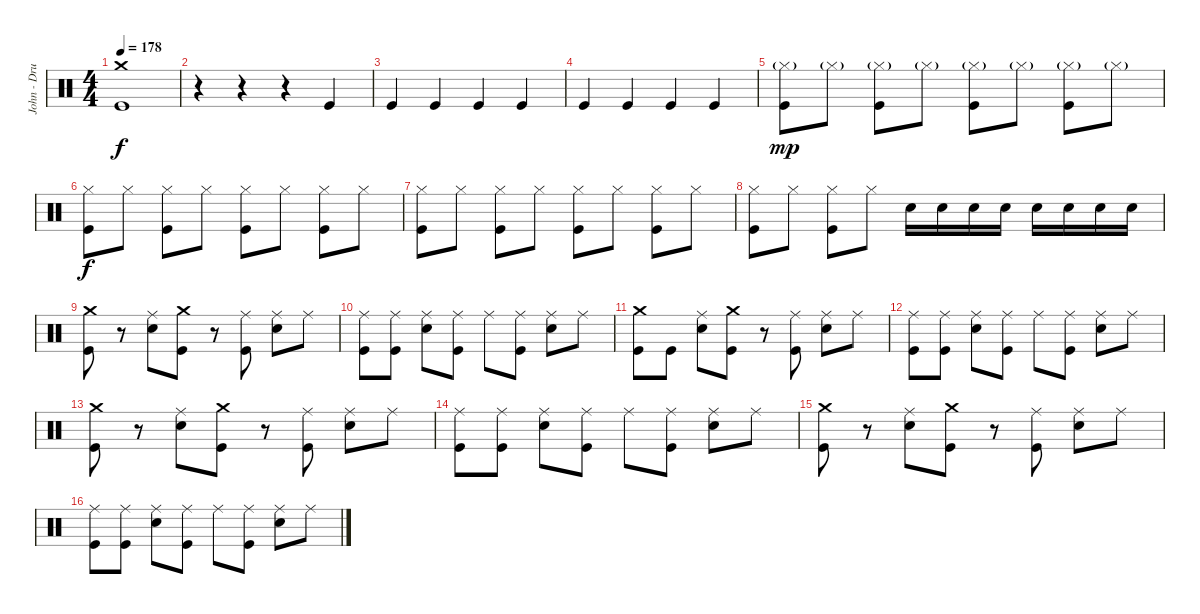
\track ("John - Drums" "John - Dru") {instrument percussion}
\staff {score}
\articulation defaults
\ts (4 4)
\tempo 178
\clef neutral
\ks c
("Crash medium (hit)" "Kick (hit)").1{dy f} |
r.4 r.4 r.4 "Kick (hit)".4 |
"Kick (hit)".4 "Kick (hit)".4 "Kick (hit)".4 "Kick (hit)".4 |
"Kick (hit)".4 "Kick (hit)".4 "Kick (hit)".4 "Kick (hit)".4 |
("Hi-Hat (closed)"{g} "Kick (hit)").8{dy mp} "Hi-Hat (closed)"{g}.8 ("Hi-Hat (closed)"{g} "Kick (hit)").8 "Hi-Hat (closed)"{g}.8 ("Hi-Hat (closed)"{g} "Kick (hit)").8 "Hi-Hat (closed)"{g}.8 ("Hi-Hat (closed)"{g} "Kick (hit)").8 "Hi-Hat (closed)"{g}.8 |
("Hi-Hat (closed)" "Kick (hit)").8{dy f} "Hi-Hat (closed)".8 ("Hi-Hat (closed)" "Kick (hit)").8 "Hi-Hat (closed)".8 ("Hi-Hat (closed)" "Kick (hit)").8 "Hi-Hat (closed)".8 ("Hi-Hat (closed)" "Kick (hit)").8 "Hi-Hat (closed)".8 |
("Hi-Hat (closed)" "Kick (hit)").8 "Hi-Hat (closed)".8 ("Hi-Hat (closed)" "Kick (hit)").8 "Hi-Hat (closed)".8 ("Hi-Hat (closed)" "Kick (hit)").8 "Hi-Hat (closed)".8 ("Hi-Hat (closed)" "Kick (hit)").8 "Hi-Hat (closed)".8 |
("Hi-Hat (closed)" "Kick (hit)").8 "Hi-Hat (closed)".8 ("Hi-Hat (closed)" "Kick (hit)").8 "Hi-Hat (closed)".8 "Electric Snare (hit)".16 "Electric Snare (hit)".16 "Electric Snare (hit)".16 "Electric Snare (hit)".16 "Electric Snare (hit)".16 "Electric Snare (hit)".16 "Electric Snare (hit)".16 "Electric Snare (hit)".16 |
("Crash medium (hit)" "Kick (hit)").8 r.8 ("Ride (middle)" "Electric Snare (hit)").8 ("Crash medium (hit)" "Kick (hit)").8 r.8 ("Ride (middle)" "Kick (hit)").8 ("Ride (middle)" "Electric Snare (hit)").8 "Ride (middle)".8 |
("Ride (middle)" "Kick (hit)").8 ("Ride (middle)" "Kick (hit)").8 ("Ride (middle)" "Electric Snare (hit)").8 ("Ride (middle)" "Kick (hit)").8 "Ride (middle)".8 ("Ride (middle)" "Kick (hit)").8 ("Ride (middle)" "Electric Snare (hit)").8 "Ride (middle)".8 |
("Crash medium (hit)" "Kick (hit)").8 "Kick (hit)".8 ("Ride (middle)" "Electric Snare (hit)").8 ("Crash medium (hit)" "Kick (hit)").8 r.8 ("Ride (middle)" "Kick (hit)").8 ("Ride (middle)" "Electric Snare (hit)").8 "Ride (middle)".8 |
("Ride (middle)" "Kick (hit)").8 ("Ride (middle)" "Kick (hit)").8 ("Ride (middle)" "Electric Snare (hit)").8 ("Ride (middle)" "Kick (hit)").8 "Ride (middle)".8 ("Ride (middle)" "Kick (hit)").8 ("Ride (middle)" "Electric Snare (hit)").8 "Ride (middle)".8 |
("Crash medium (hit)" "Kick (hit)").8 r.8 ("Ride (middle)" "Electric Snare (hit)").8 ("Crash medium (hit)" "Kick (hit)").8 r.8 ("Ride (middle)" "Kick (hit)").8 ("Ride (middle)" "Electric Snare (hit)").8 "Ride (middle)".8 |
("Ride (middle)" "Kick (hit)").8 ("Ride (middle)" "Kick (hit)").8 ("Ride (middle)" "Electric Snare (hit)").8 ("Ride (middle)" "Kick (hit)").8 "Ride (middle)".8 ("Ride (middle)" "Kick (hit)").8 ("Ride (middle)" "Electric Snare (hit)").8 "Ride (middle)".8 |
("Crash medium (hit)" "Kick (hit)").8 r.8 ("Ride (middle)" "Electric Snare (hit)").8 ("Crash medium (hit)" "Kick (hit)").8 r.8 ("Ride (middle)" "Kick (hit)").8 ("Ride (middle)" "Electric Snare (hit)").8 "Ride (middle)".8 |
("Ride (middle)" "Kick (hit)").8 ("Ride (middle)" "Kick (hit)").8 ("Ride (middle)" "Electric Snare (hit)").8 ("Ride (middle)" "Kick (hit)").8 "Ride (middle)".8 ("Ride (middle)" "Kick (hit)").8 ("Ride (middle)" "Electric Snare (hit)").8 "Ride (middle)".8
